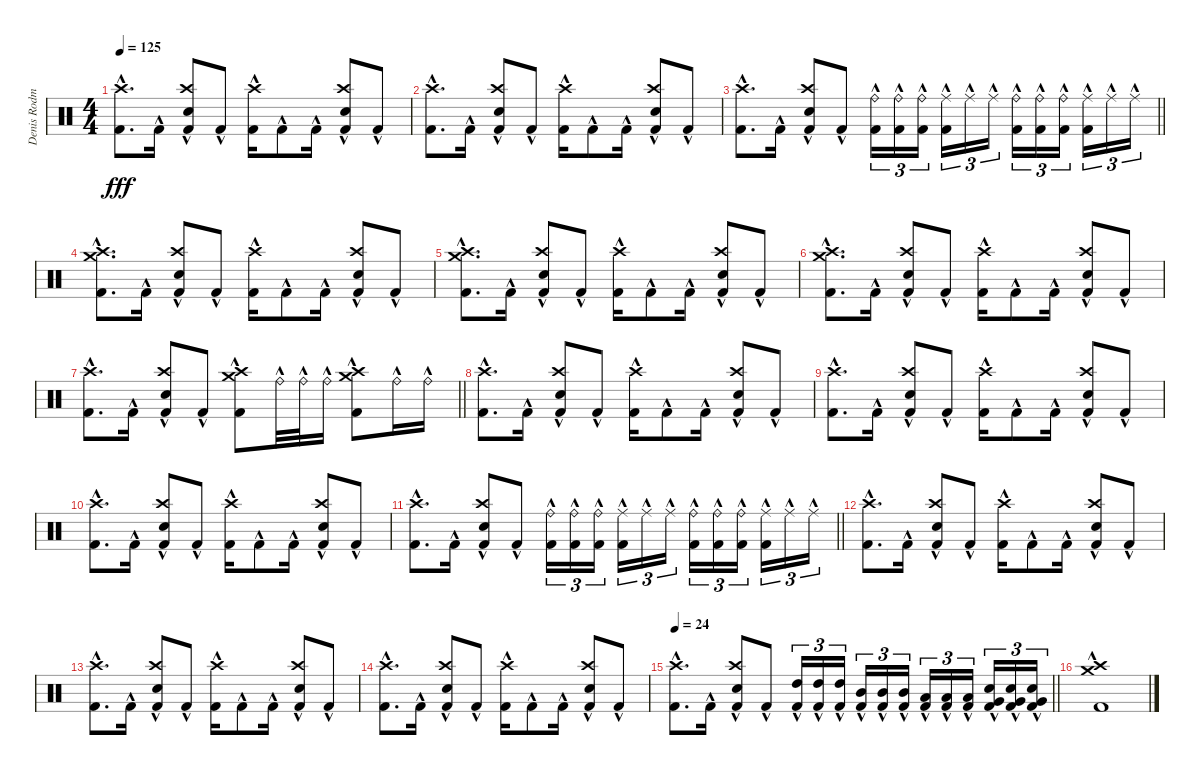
\track ("Denis Rodman" "Denis Rodm") {instrument percussion}
\staff {score}
\articulation defaults
\ts (4 4)
\tempo 125
\clef neutral
\ks c
("Kick (hit) 2"{hac} "Crash high (hit)").8{d dy fff} "Kick (hit) 2"{hac}.16 ("Kick (hit) 2"{hac} "Snare (hit) 2" "Crash high (hit)").8 "Kick (hit) 2"{hac}.8 ("Kick (hit) 2"{hac} "Crash high (hit)").16 "Kick (hit) 2"{hac}.8 "Kick (hit) 2"{hac}.16 ("Kick (hit) 2"{hac} "Snare (hit) 2" "Crash high (hit)").8 "Kick (hit) 2"{hac}.8 |
("Kick (hit) 2"{hac} "Crash high (hit)").8{d} "Kick (hit) 2"{hac}.16 ("Kick (hit) 2"{hac} "Snare (hit) 2" "Crash high (hit)").8 "Kick (hit) 2"{hac}.8 ("Kick (hit) 2"{hac} "Crash high (hit)").16 "Kick (hit) 2"{hac}.8 "Kick (hit) 2"{hac}.16 ("Kick (hit) 2"{hac} "Snare (hit) 2" "Crash high (hit)").8 "Kick (hit) 2"{hac}.8 |
\barLineRight lightlight
("Kick (hit) 2"{hac} "Crash high (hit)").8{d} "Kick (hit) 2"{hac}.16 ("Kick (hit) 2"{hac} "Snare (hit) 2" "Crash high (hit)").8 "Kick (hit) 2"{hac}.8 ("Ride (bell)"{hac} "Kick (hit) 2"{hac}).16{tu (3 2)} ("Ride (bell)"{hac} "Kick (hit) 2"{hac}).16{tu (3 2)} ("Ride (bell)"{hac} "Kick (hit) 2"{hac}).16{tu (3 2) beam splitsecondary} ("Ride (middle)"{hac} "Kick (hit) 2"{hac}).16{tu (3 2)} "Ride (middle)"{hac}.16{tu (3 2)} "Ride (middle)"{hac}.16{tu (3 2)} ("Ride (bell)"{hac} "Kick (hit) 2"{hac}).16{tu (3 2)} ("Ride (bell)"{hac} "Kick (hit) 2"{hac}).16{tu (3 2)} ("Ride (bell)"{hac} "Kick (hit) 2"{hac}).16{tu (3 2) beam splitsecondary} ("Ride (middle)"{hac} "Kick (hit) 2"{hac}).16{tu (3 2)} "Ride (middle)"{hac}.16{tu (3 2)} "Ride (middle)"{hac}.16{tu (3 2)} |
("Kick (hit) 2"{hac} "Crash high (hit)" "Crash medium (hit)").8{d} "Kick (hit) 2"{hac}.16 ("Kick (hit) 2"{hac} "Snare (hit) 2" "Crash high (hit)").8 "Kick (hit) 2"{hac}.8 ("Kick (hit) 2"{hac} "Crash high (hit)").16 "Kick (hit) 2"{hac}.8 "Kick (hit) 2"{hac}.16 ("Kick (hit) 2"{hac} "Snare (hit) 2" "Crash high (hit)").8 "Kick (hit) 2"{hac}.8 |
("Kick (hit) 2"{hac} "Crash high (hit)" "Crash medium (hit)").8{d} "Kick (hit) 2"{hac}.16 ("Kick (hit) 2"{hac} "Snare (hit) 2" "Crash high (hit)").8 "Kick (hit) 2"{hac}.8 ("Kick (hit) 2"{hac} "Crash high (hit)").16 "Kick (hit) 2"{hac}.8 "Kick (hit) 2"{hac}.16 ("Kick (hit) 2"{hac} "Snare (hit) 2" "Crash high (hit)").8 "Kick (hit) 2"{hac}.8 |
("Kick (hit) 2"{hac} "Crash high (hit)" "Crash medium (hit)").8{d} "Kick (hit) 2"{hac}.16 ("Kick (hit) 2"{hac} "Snare (hit) 2" "Crash high (hit)").8 "Kick (hit) 2"{hac}.8 ("Kick (hit) 2"{hac} "Crash high (hit)").16 "Kick (hit) 2"{hac}.8 "Kick (hit) 2"{hac}.16 ("Kick (hit) 2"{hac} "Snare (hit) 2" "Crash high (hit)").8 "Kick (hit) 2"{hac}.8 |
\barLineRight lightlight
("Kick (hit) 2"{hac} "Crash high (hit)").8{d} "Kick (hit) 2"{hac}.16 ("Kick (hit) 2"{hac} "Snare (hit) 2" "Crash high (hit)").8 "Kick (hit) 2"{hac}.8 ("Crash high (hit)" "Crash medium (hit)" "Kick (hit) 2"{hac}).8 "Ride (bell)"{hac}.32 "Ride (bell)"{hac}.32 "Ride (bell)"{hac}.16 ("Crash high (hit)" "Crash medium (hit)" "Kick (hit) 2"{hac}).8 "Ride (bell)"{hac}.16 "Ride (bell)"{hac}.16 |
("Kick (hit) 2"{hac} "Crash high (hit)").8{d} "Kick (hit) 2"{hac}.16 ("Kick (hit) 2"{hac} "Snare (hit) 2" "Crash high (hit)").8 "Kick (hit) 2"{hac}.8 ("Kick (hit) 2"{hac} "Crash high (hit)").16 "Kick (hit) 2"{hac}.8 "Kick (hit) 2"{hac}.16 ("Kick (hit) 2"{hac} "Snare (hit) 2" "Crash high (hit)").8 "Kick (hit) 2"{hac}.8 |
("Kick (hit) 2"{hac} "Crash high (hit)").8{d} "Kick (hit) 2"{hac}.16 ("Kick (hit) 2"{hac} "Snare (hit) 2" "Crash high (hit)").8 "Kick (hit) 2"{hac}.8 ("Kick (hit) 2"{hac} "Crash high (hit)").16 "Kick (hit) 2"{hac}.8 "Kick (hit) 2"{hac}.16 ("Kick (hit) 2"{hac} "Snare (hit) 2" "Crash high (hit)").8 "Kick (hit) 2"{hac}.8 |
("Kick (hit) 2"{hac} "Crash high (hit)").8{d} "Kick (hit) 2"{hac}.16 ("Kick (hit) 2"{hac} "Snare (hit) 2" "Crash high (hit)").8 "Kick (hit) 2"{hac}.8 ("Kick (hit) 2"{hac} "Crash high (hit)").16 "Kick (hit) 2"{hac}.8 "Kick (hit) 2"{hac}.16 ("Kick (hit) 2"{hac} "Snare (hit) 2" "Crash high (hit)").8 "Kick (hit) 2"{hac}.8 |
\barLineRight lightlight
("Kick (hit) 2"{hac} "Crash high (hit)").8{d} "Kick (hit) 2"{hac}.16 ("Kick (hit) 2"{hac} "Snare (hit) 2" "Crash high (hit)").8 "Kick (hit) 2"{hac}.8 ("Ride (bell)"{hac} "Kick (hit) 2"{hac}).16{tu (3 2)} ("Ride (bell)"{hac} "Kick (hit) 2"{hac}).16{tu (3 2)} ("Ride (bell)"{hac} "Kick (hit) 2"{hac}).16{tu (3 2) beam splitsecondary} ("Ride (middle)"{hac} "Kick (hit) 2").16{tu (3 2)} "Ride (middle)"{hac}.16{tu (3 2)} "Ride (middle)"{hac}.16{tu (3 2)} ("Ride (bell)"{hac} "Kick (hit) 2"{hac}).16{tu (3 2)} ("Ride (bell)"{hac} "Kick (hit) 2"{hac}).16{tu (3 2)} ("Ride (bell)"{hac} "Kick (hit) 2"{hac}).16{tu (3 2) beam splitsecondary} ("Ride (middle)"{hac} "Kick (hit) 2").16{tu (3 2)} "Ride (middle)"{hac}.16{tu (3 2)} "Ride (middle)"{hac}.16{tu (3 2)} |
("Kick (hit) 2"{hac} "Crash high (hit)").8{d} "Kick (hit) 2"{hac}.16 ("Kick (hit) 2"{hac} "Snare (hit) 2" "Crash high (hit)").8 "Kick (hit) 2"{hac}.8 ("Kick (hit) 2"{hac} "Crash high (hit)").16 "Kick (hit) 2"{hac}.8 "Kick (hit) 2"{hac}.16 ("Kick (hit) 2"{hac} "Snare (hit) 2" "Crash high (hit)").8 "Kick (hit) 2"{hac}.8 |
("Kick (hit) 2"{hac} "Crash high (hit)").8{d} "Kick (hit) 2"{hac}.16 ("Kick (hit) 2"{hac} "Snare (hit) 2" "Crash high (hit)").8 "Kick (hit) 2"{hac}.8 ("Kick (hit) 2"{hac} "Crash high (hit)").16 "Kick (hit) 2"{hac}.8 "Kick (hit) 2"{hac}.16 ("Kick (hit) 2"{hac} "Snare (hit) 2" "Crash high (hit)").8 "Kick (hit) 2"{hac}.8 |
("Kick (hit) 2"{hac} "Crash high (hit)").8{d} "Kick (hit) 2"{hac}.16 ("Kick (hit) 2"{hac} "Snare (hit) 2" "Crash high (hit)").8 "Kick (hit) 2"{hac}.8 ("Kick (hit) 2"{hac} "Crash high (hit)").16 "Kick (hit) 2"{hac}.8 "Kick (hit) 2"{hac}.16 ("Kick (hit) 2"{hac} "Snare (hit) 2" "Crash high (hit)").8 "Kick (hit) 2"{hac}.8 |
\tempo 24
\barLineRight lightlight
("Kick (hit) 2"{hac} "Crash high (hit)").8{d} "Kick (hit) 2"{hac}.16 ("Kick (hit) 2"{hac} "Snare (hit) 2" "Crash high (hit)").8 "Kick (hit) 2"{hac}.8 ("High Tom (hit)"{hac} "Kick (hit) 2"{hac}).16{tu (3 2)} ("High Tom (hit)"{hac} "Kick (hit) 2"{hac}).16{tu (3 2)} ("High Tom (hit)"{hac} "Kick (hit) 2"{hac}).16{tu (3 2) beam splitsecondary} ("Mid Tom (hit)"{hac} "Kick (hit) 2"{hac}).16{tu (3 2)} ("Mid Tom (hit)"{hac} "Kick (hit) 2"{hac}).16{tu (3 2)} ("Mid Tom (hit)"{hac} "Kick (hit) 2"{hac}).16{tu (3 2)} ("Low Tom (hit)"{hac} "Kick (hit) 2"{hac}).16{tu (3 2)} ("Low Tom (hit)"{hac} "Kick (hit) 2"{hac}).16{tu (3 2)} ("Low Tom (hit)"{hac} "Kick (hit) 2"{hac}).16{tu (3 2) beam splitsecondary} ("Very Low Tom (hit)"{hac} "Kick (hit) 2"{hac} "Snare (hit) 2").16{tu (3 2)} ("Very Low Tom (hit)"{hac} "Kick (hit) 2"{hac} "Snare (hit) 2").16{tu (3 2)} ("Very Low Tom (hit)"{hac} "Kick (hit) 2"{hac} "Snare (hit) 2").16{tu (3 2)} |
("Kick (hit) 2"{hac} "Crash high (hit)" "Crash medium (hit)").1{volume 0}
